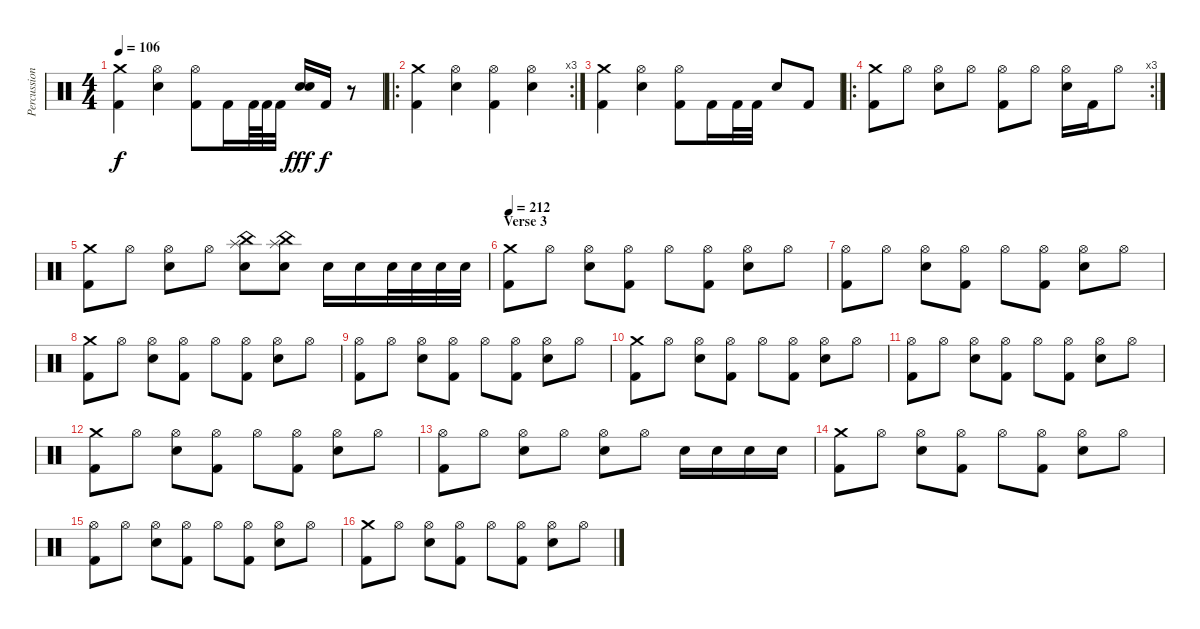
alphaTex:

\track ("Percussion" "Percussion") {instrument percussion}
\staff {score}
\articulation defaults
\ts (4 4)
\tempo 106
\clef neutral
\ks c
("Kick (hit) 2" "Crash medium (hit)").4{dy f} ("Snare (hit) 2" "Hi-Hat (open)").4 ("Kick (hit) 2" "Hi-Hat (open)").8 "Kick (hit) 2".16 "Kick (hit) 2".64 "Kick (hit) 2".64 "Kick (hit) 2".32 ("Snare (hit) 2" "Snare (hit) 2").16{dy fff} "Kick (hit) 2".16{dy f} r.8 |
\ro
\rc 3
("Kick (hit) 2" "Crash medium (hit)").4 ("Snare (hit) 2" "Hi-Hat (open)").4 ("Kick (hit) 2" "Hi-Hat (open)").4 ("Snare (hit) 2" "Hi-Hat (open)").4 |
("Kick (hit) 2" "Crash medium (hit)").4 ("Snare (hit) 2" "Hi-Hat (open)").4 ("Kick (hit) 2" "Hi-Hat (open)").8 "Kick (hit) 2".16 "Kick (hit) 2".32 "Kick (hit) 2".32 "Snare (hit) 2".8 "Kick (hit) 2".8 |
\ro
\rc 3
("Kick (hit) 2" "Crash medium (hit)").8 "Hi-Hat (open)".8 ("Snare (hit) 2" "Hi-Hat (open)").8 "Hi-Hat (open)".8 ("Kick (hit) 2" "Hi-Hat (open)").8 "Hi-Hat (open)".8 ("Snare (hit) 2" "Hi-Hat (open)").16 "Kick (hit) 2".16 "Hi-Hat (open)".8 |
("Kick (hit) 2" "Crash medium (hit)").8 "Hi-Hat (open)".8 ("Snare (hit) 2" "Hi-Hat (open)").8 "Hi-Hat (open)".8 ("Splash (hit)" "Snare (hit) 2" "China (hit)").8 ("Splash (hit)" "Snare (hit) 2" "China (hit)").8 "Snare (hit) 2".16 "Snare (hit) 2".16 "Snare (hit) 2".32 "Snare (hit) 2".32 "Snare (hit) 2".32 "Snare (hit) 2".32 |
\section ("" "Verse 3")
\tempo 212
("Kick (hit) 2" "Crash medium (hit)").8 "Hi-Hat (open)".8 ("Snare (hit) 2" "Hi-Hat (open)").8 ("Kick (hit) 2" "Hi-Hat (open)").8 "Hi-Hat (open)".8 ("Kick (hit) 2" "Hi-Hat (open)").8 ("Snare (hit) 2" "Hi-Hat (open)").8 "Hi-Hat (open)".8 |
("Kick (hit) 2" "Hi-Hat (open)").8 "Hi-Hat (open)".8 ("Snare (hit) 2" "Hi-Hat (open)").8 ("Kick (hit) 2" "Hi-Hat (open)").8 "Hi-Hat (open)".8 ("Kick (hit) 2" "Hi-Hat (open)").8 ("Snare (hit) 2" "Hi-Hat (open)").8 "Hi-Hat (open)".8 |
("Kick (hit) 2" "Crash medium (hit)").8 "Hi-Hat (open)".8 ("Snare (hit) 2" "Hi-Hat (open)").8 ("Kick (hit) 2" "Hi-Hat (open)").8 "Hi-Hat (open)".8 ("Kick (hit) 2" "Hi-Hat (open)").8 ("Snare (hit) 2" "Hi-Hat (open)").8 "Hi-Hat (open)".8 |
("Kick (hit) 2" "Hi-Hat (open)").8 "Hi-Hat (open)".8 ("Snare (hit) 2" "Hi-Hat (open)").8 ("Kick (hit) 2" "Hi-Hat (open)").8 "Hi-Hat (open)".8 ("Kick (hit) 2" "Hi-Hat (open)").8 ("Snare (hit) 2" "Hi-Hat (open)").8 "Hi-Hat (open)".8 |
("Kick (hit) 2" "Crash medium (hit)").8 "Hi-Hat (open)".8 ("Snare (hit) 2" "Hi-Hat (open)").8 ("Kick (hit) 2" "Hi-Hat (open)").8 "Hi-Hat (open)".8 ("Kick (hit) 2" "Hi-Hat (open)").8 ("Snare (hit) 2" "Hi-Hat (open)").8 "Hi-Hat (open)".8 |
("Kick (hit) 2" "Hi-Hat (open)").8 "Hi-Hat (open)".8 ("Snare (hit) 2" "Hi-Hat (open)").8 ("Kick (hit) 2" "Hi-Hat (open)").8 "Hi-Hat (open)".8 ("Kick (hit) 2" "Hi-Hat (open)").8 ("Snare (hit) 2" "Hi-Hat (open)").8 "Hi-Hat (open)".8 |
("Kick (hit) 2" "Crash medium (hit)").8 "Hi-Hat (open)".8 ("Snare (hit) 2" "Hi-Hat (open)").8 ("Kick (hit) 2" "Hi-Hat (open)").8 "Hi-Hat (open)".8 ("Kick (hit) 2" "Hi-Hat (open)").8 ("Snare (hit) 2" "Hi-Hat (open)").8 "Hi-Hat (open)".8 |
("Kick (hit) 2" "Hi-Hat (open)").8 "Hi-Hat (open)".8 ("Snare (hit) 2" "Hi-Hat (open)").8 "Hi-Hat (open)".8 ("Snare (hit) 2" "Hi-Hat (open)").8 "Hi-Hat (open)".8 "Snare (hit) 2".16 "Snare (hit) 2".16 "Snare (hit) 2".16 "Snare (hit) 2".16 |
("Kick (hit) 2" "Crash medium (hit)").8 "Hi-Hat (open)".8 ("Snare (hit) 2" "Hi-Hat (open)").8 ("Kick (hit) 2" "Hi-Hat (open)").8 "Hi-Hat (open)".8 ("Kick (hit) 2" "Hi-Hat (open)").8 ("Snare (hit) 2" "Hi-Hat (open)").8 "Hi-Hat (open)".8 |
("Kick (hit) 2" "Hi-Hat (open)").8 "Hi-Hat (open)".8 ("Snare (hit) 2" "Hi-Hat (open)").8 ("Kick (hit) 2" "Hi-Hat (open)").8 "Hi-Hat (open)".8 ("Kick (hit) 2" "Hi-Hat (open)").8 ("Snare (hit) 2" "Hi-Hat (open)").8 "Hi-Hat (open)".8 |
("Kick (hit) 2" "Crash medium (hit)").8 "Hi-Hat (open)".8 ("Snare (hit) 2" "Hi-Hat (open)").8 ("Kick (hit) 2" "Hi-Hat (open)").8 "Hi-Hat (open)".8 ("Kick (hit) 2" "Hi-Hat (open)").8 ("Snare (hit) 2" "Hi-Hat (open)").8 "Hi-Hat (open)".8
